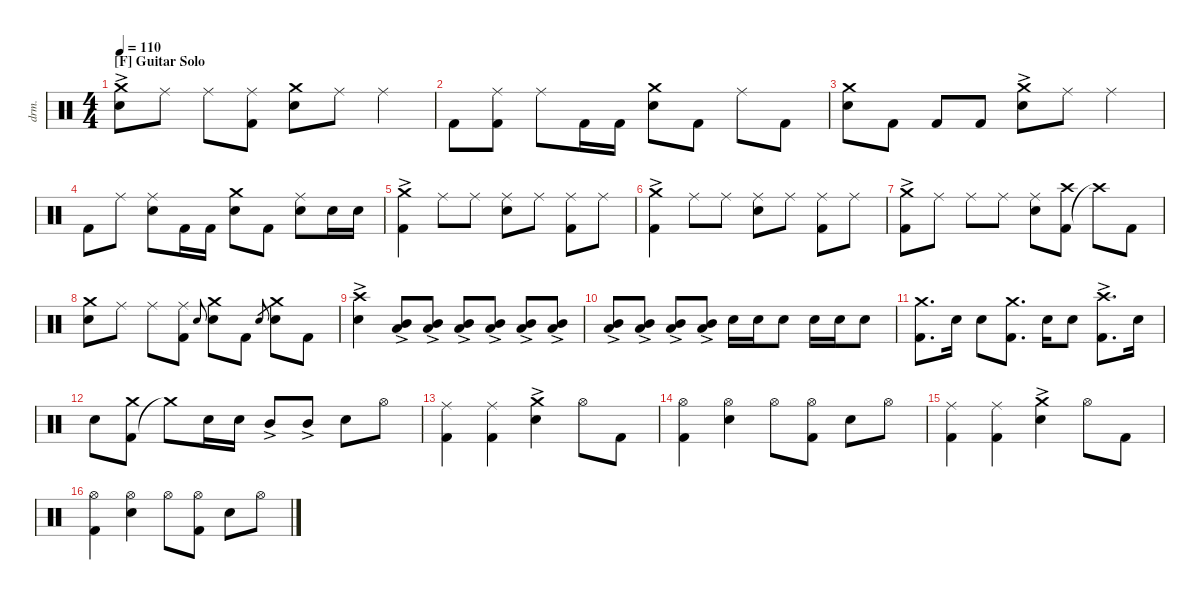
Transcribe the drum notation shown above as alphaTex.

\defaultSystemsLayout 4
\hideDynamics
\bracketExtendMode nobrackets
\otherSystemsTrackNameOrientation horizontal
\track ("Drums" "drm.") {instrument percussion}
\staff {score}
\articulation defaults
\ts (4 4)
\section ("F" "Guitar Solo")
\tempo 110
\clef neutral
\ks aminor
("Snare (hit) 2"{ac} "Crash medium (hit)"{ac}).8{dy f beam Down} "Ride (middle)".8{beam Down} "Ride (middle)".8{beam Down} ("Kick (hit) 2" "Ride (middle)").8{beam Down} ("Snare (hit) 2" "Crash medium (hit)").8{beam Down} "Ride (middle)".8{beam Down} "Ride (middle)".4{beam Down} |
"Kick (hit) 2".8{beam Down} ("Kick (hit) 2" "Ride (middle)").8{beam Down} "Ride (middle)".8{beam Down} "Kick (hit) 2".16{beam Down} "Kick (hit) 2".16{beam Down} ("Snare (hit) 2" "Crash medium (hit)").8{beam Down} "Kick (hit) 2".8{beam Down} "Ride (middle)".8{beam Down} "Kick (hit) 2".8{beam Down} |
("Snare (hit) 2" "Crash medium (hit)").8{beam Down} "Kick (hit) 2".8{beam Down} "Kick (hit) 2".8{beam Up} "Kick (hit) 2".8{beam Up} ("Snare (hit) 2"{ac} "Crash medium (hit)"{ac}).8{beam Down} "Ride (middle)".8{beam Down} "Ride (middle)".4{beam Down} |
"Kick (hit) 2".8{beam Down} "Ride (middle)".8{beam Down} ("Ride (middle)" "Snare (hit) 2").8{beam Down} "Kick (hit) 2".16{beam Down} "Kick (hit) 2".16{beam Down} ("Snare (hit) 2" "Crash medium (hit)").8{beam Down} "Kick (hit) 2".8{beam Down} ("Ride (middle)" "Snare (hit) 2").8{beam Down} "Snare (hit) 2".16{beam Down} "Snare (hit) 2".16{beam Down} |
("Kick (hit) 2"{ac} "Crash medium (hit)"{ac}).4{beam Down} "Ride (middle)".8{beam Down} "Ride (middle)".8{beam Down} ("Snare (hit) 2" "Ride (middle)").8{beam Down} "Ride (middle)".8{beam Down} ("Kick (hit) 2" "Ride (middle)").8{beam Down} "Ride (middle)".8{beam Down} |
("Kick (hit) 2"{ac} "Crash medium (hit)"{ac}).4{beam Down} "Ride (middle)".8{beam Down} "Ride (middle)".8{beam Down} ("Snare (hit) 2" "Ride (middle)").8{beam Down} "Ride (middle)".8{beam Down} ("Kick (hit) 2" "Ride (middle)").8{beam Down} "Ride (middle)".8{beam Down} |
("Kick (hit) 2"{ac} "Crash medium (hit)"{ac}).8{beam Down} "Ride (middle)".8{beam Down} "Ride (middle)".8{beam Down} "Ride (middle)".8{beam Down} ("Ride (middle)" "Snare (hit) 2").8{beam Down} ("Kick (hit) 2" "Crash high (hit)").8{beam Down} "Crash high (hit)"{t}.8{beam Down} "Kick (hit) 2".8{beam Down} |
("Snare (hit) 2" "Crash medium (hit)").8{beam Down} "Ride (middle)".8{beam Down} "Ride (middle)".8{beam Down} ("Ride (middle)" "Kick (hit) 2").8{beam Down} "Snare (hit) 2".8{gr onbeat beam Up} ("Snare (hit) 2" "Crash medium (hit)").8{beam Down} "Kick (hit) 2".8{beam Down} "Snare (hit) 2".8{gr beam Up} ("Snare (hit) 2" "Crash medium (hit)").8{beam Down} "Kick (hit) 2".8{beam Down} |
("Snare (hit) 2"{ac} "Crash high (hit)"{ac}).4{beam Down} ("Low Tom (hit)"{ac} "Mid Tom (hit)"{ac}).8{beam Up} ("Low Tom (hit)"{ac} "Mid Tom (hit)"{ac}).8{beam Up} ("Low Tom (hit)"{ac} "Mid Tom (hit)"{ac}).8{beam Up} ("Low Tom (hit)"{ac} "Mid Tom (hit)"{ac}).8{beam Up} ("Low Tom (hit)"{ac} "Mid Tom (hit)"{ac}).8{beam Up} ("Low Tom (hit)"{ac} "Mid Tom (hit)"{ac}).8{beam Up} |
("Low Tom (hit)"{ac} "Mid Tom (hit)"{ac}).8{beam Up} ("Low Tom (hit)"{ac} "Mid Tom (hit)"{ac}).8{beam Up} ("Low Tom (hit)"{ac} "Mid Tom (hit)"{ac}).8{beam Up} ("Low Tom (hit)"{ac} "Mid Tom (hit)"{ac}).8{beam Up} "Snare (hit) 2".16{beam Down} "Snare (hit) 2".16{beam Down} "Snare (hit) 2".8{beam Down} "Snare (hit) 2".16{beam Down} "Snare (hit) 2".16{beam Down} "Snare (hit) 2".8{beam Down} |
("Kick (hit) 2" "Crash medium (hit)").8{d beam Down} "Snare (hit) 2".16{beam Down} "Snare (hit) 2".8{beam Down} ("Kick (hit) 2" "Crash medium (hit)").8{d beam Down} "Snare (hit) 2".16{beam Down} "Snare (hit) 2".8{beam Down} ("Kick (hit) 2"{ac} "Crash high (hit)"{ac}).8{d beam Down} "Snare (hit) 2".16{beam Down} |
"Snare (hit) 2".8{beam Down} ("Kick (hit) 2" "Crash medium (hit)").8{beam Down} "Crash medium (hit)"{t}.8{beam Down} "Snare (hit) 2".16{beam Down} "Snare (hit) 2".16{beam Down} "Mid Tom (hit)"{ac}.8{beam Up} "Mid Tom (hit)"{ac}.8{beam Up} "Snare (hit) 2".8{beam Down} "Hi-Hat (open)".8{beam Down} |
("Kick (hit) 2" "Ride (middle)").4{beam Down} ("Kick (hit) 2" "Ride (middle)").4{beam Down} ("Snare (hit) 2"{ac} "Crash medium (hit)"{ac}).4{beam Down} "Hi-Hat (open)".8{beam Down} "Kick (hit) 2".8{beam Down} |
("Kick (hit) 2" "Hi-Hat (open)").4{beam Down} ("Hi-Hat (open)" "Snare (hit) 2").4{beam Down} "Hi-Hat (open)".8{beam Down} ("Hi-Hat (open)" "Kick (hit) 2").8{beam Down} "Snare (hit) 2".8{beam Down} "Hi-Hat (open)".8{beam Down} |
("Kick (hit) 2" "Ride (middle)").4{beam Down} ("Kick (hit) 2" "Ride (middle)").4{beam Down} ("Snare (hit) 2"{ac} "Crash medium (hit)"{ac}).4{beam Down} "Hi-Hat (open)".8{beam Down} "Kick (hit) 2".8{beam Down} |
("Kick (hit) 2" "Hi-Hat (open)").4{beam Down} ("Hi-Hat (open)" "Snare (hit) 2").4{beam Down} "Hi-Hat (open)".8{beam Down} ("Hi-Hat (open)" "Kick (hit) 2").8{beam Down} "Snare (hit) 2".8{beam Down} "Hi-Hat (open)".8{beam Down}
